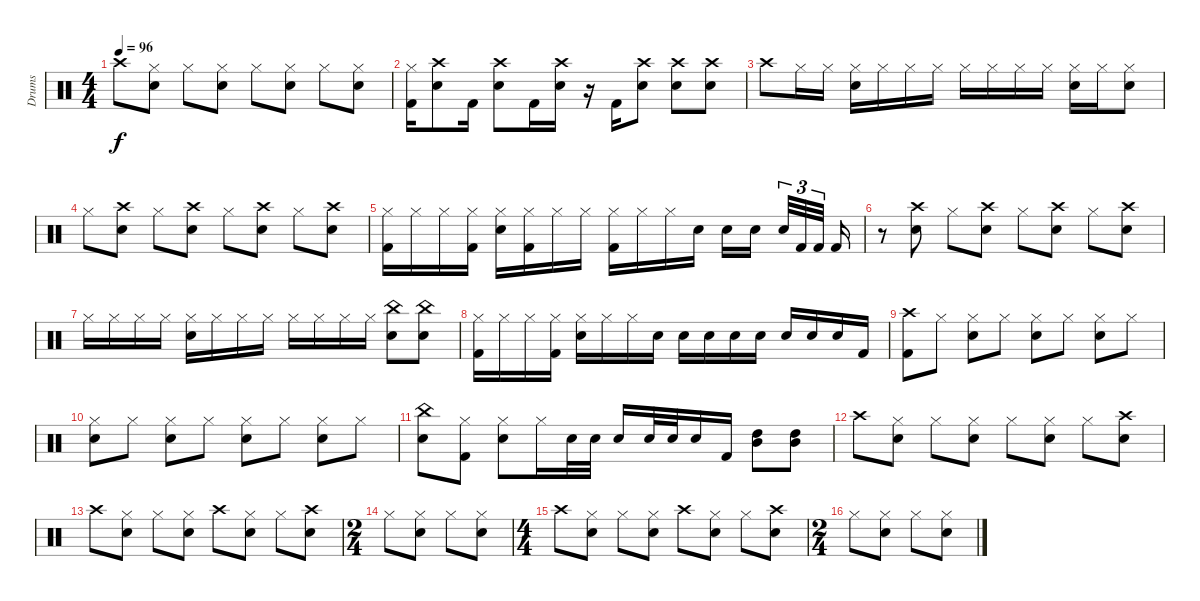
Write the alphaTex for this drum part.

\track ("Drums" "Drums") {instrument percussion}
\staff {score}
\articulation defaults
\ts (4 4)
\tempo 96
\clef neutral
\ks c "Crash high (hit)".8{dy f}
("Hi-Hat (closed)" "Snare (hit) 2").8 "Hi-Hat (closed)".8 ("Hi-Hat (closed)" "Snare (hit) 2").8 "Hi-Hat (closed)".8 ("Hi-Hat (closed)" "Snare (hit) 2").8 "Hi-Hat (closed)".8 ("Hi-Hat (closed)" "Snare (hit) 2").8 |
("Hi-Hat (closed)" "Kick (hit) 2").16 ("Crash high (hit)" "Snare (hit) 2").8 "Kick (hit) 2".16 ("Crash high (hit)" "Snare (hit) 2").8 "Kick (hit) 2".16 ("Crash high (hit)" "Snare (hit) 2").16 r.16 "Kick (hit) 2".16 ("Crash high (hit)" "Snare (hit) 2").8 ("Crash high (hit)" "Snare (hit) 2").8 ("Crash high (hit)" "Snare (hit) 2").8 |
"Crash high (hit)".8 "Hi-Hat (closed)".16 "Hi-Hat (closed)".16 ("Hi-Hat (closed)" "Snare (hit) 2").16 "Hi-Hat (closed)".16 "Hi-Hat (closed)".16 "Hi-Hat (closed)".16 "Hi-Hat (closed)".16 "Hi-Hat (closed)".16 "Hi-Hat (closed)".16 "Hi-Hat (closed)".16 ("Hi-Hat (closed)" "Snare (hit) 2").16 "Hi-Hat (closed)".16 ("Hi-Hat (closed)" "Snare (hit) 2").8 |
"Hi-Hat (closed)".8 ("Crash high (hit)" "Snare (hit) 2").8 "Hi-Hat (closed)".8 ("Crash high (hit)" "Snare (hit) 2").8 "Hi-Hat (closed)".8 ("Crash high (hit)" "Snare (hit) 2").8 "Hi-Hat (closed)".8 ("Crash high (hit)" "Snare (hit) 2").8 |
("Hi-Hat (closed)" "Kick (hit) 2").16 "Hi-Hat (closed)".16 "Hi-Hat (closed)".16 ("Hi-Hat (closed)" "Kick (hit) 2").16 ("Hi-Hat (closed)" "Snare (hit) 2").16 ("Hi-Hat (closed)" "Kick (hit) 2").16 "Hi-Hat (closed)".16 "Hi-Hat (closed)".16 ("Hi-Hat (closed)" "Kick (hit) 2").16 "Hi-Hat (closed)".16 "Hi-Hat (closed)".16 "Snare (hit) 2".16 "Snare (hit) 2".16 "Snare (hit) 2".16{beam splitsecondary} "Snare (hit) 2".32{tu (3 2)} "Kick (hit) 2".32{tu (3 2)} "Kick (hit) 2".32{tu (3 2) beam splitsecondary} "Kick (hit) 2".16 |
r.8 ("Crash high (hit)" "Snare (hit) 2").8 "Hi-Hat (closed)".8 ("Crash high (hit)" "Snare (hit) 2").8 "Hi-Hat (closed)".8 ("Crash high (hit)" "Snare (hit) 2").8 "Hi-Hat (closed)".8 ("Crash high (hit)" "Snare (hit) 2").8 |
"Hi-Hat (closed)".16 "Hi-Hat (closed)".16 "Hi-Hat (closed)".16 "Hi-Hat (closed)".16 ("Hi-Hat (closed)" "Snare (hit) 2").16 "Hi-Hat (closed)".16 "Hi-Hat (closed)".16 "Hi-Hat (closed)".16 "Hi-Hat (closed)".16 "Hi-Hat (closed)".16 "Hi-Hat (closed)".16 "Hi-Hat (closed)".16 ("China (hit)" "Snare (hit) 2").8 ("China (hit)" "Snare (hit) 2").8 |
("Hi-Hat (closed)" "Kick (hit) 2").16 "Hi-Hat (closed)".16 "Hi-Hat (closed)".16 ("Hi-Hat (closed)" "Kick (hit) 2").16 ("Hi-Hat (closed)" "Snare (hit) 2").16 "Hi-Hat (closed)".16 "Hi-Hat (closed)".16 "Snare (hit) 2".16 "Snare (hit) 2".16 "Snare (hit) 2".16 "Snare (hit) 2".16 "Snare (hit) 2".16 "Snare (hit) 2".16 "Snare (hit) 2".16 "Snare (hit) 2".16 "Kick (hit) 2".16 |
("Crash high (hit)" "Kick (hit) 2").8 "Hi-Hat (closed)".8 ("Hi-Hat (closed)" "Snare (hit) 2").8 "Hi-Hat (closed)".8 ("Hi-Hat (closed)" "Snare (hit) 2").8 "Hi-Hat (closed)".8 ("Hi-Hat (closed)" "Snare (hit) 2").8 "Hi-Hat (closed)".8 |
("Hi-Hat (closed)" "Snare (hit) 2").8 "Hi-Hat (closed)".8 ("Hi-Hat (closed)" "Snare (hit) 2").8 "Hi-Hat (closed)".8 ("Hi-Hat (closed)" "Snare (hit) 2").8 "Hi-Hat (closed)".8 ("Hi-Hat (closed)" "Snare (hit) 2").8 "Hi-Hat (closed)".8 |
("China (hit)" "Snare (hit) 2").8 ("Hi-Hat (closed)" "Kick (hit) 2").8 ("Hi-Hat (closed)" "Snare (hit) 2").8 "Hi-Hat (closed)".16 "Snare (hit) 2".32 "Snare (hit) 2".32 "Snare (hit) 2".16 "Snare (hit) 2".32 "Snare (hit) 2".32 "Snare (hit) 2".16 "Kick (hit) 2".16 ("Mid Tom (hit)" "High Tom (hit)").8 ("Mid Tom (hit)" "High Tom (hit)").8 |
"Crash high (hit)".8 ("Hi-Hat (closed)" "Snare (hit) 2").8 "Hi-Hat (closed)".8 ("Hi-Hat (closed)" "Snare (hit) 2").8 "Hi-Hat (closed)".8 ("Hi-Hat (closed)" "Snare (hit) 2").8 "Hi-Hat (closed)".8 ("Crash high (hit)" "Snare (hit) 2").8 |
"Crash high (hit)".8 ("Hi-Hat (closed)" "Snare (hit) 2").8 "Hi-Hat (closed)".8 ("Hi-Hat (closed)" "Snare (hit) 2").8 "Crash high (hit)".8 ("Hi-Hat (closed)" "Snare (hit) 2").8 "Hi-Hat (closed)".8 ("Crash high (hit)" "Snare (hit) 2").8 |
\ts (2 4)
"Hi-Hat (closed)".8 ("Hi-Hat (closed)" "Snare (hit) 2").8 "Hi-Hat (closed)".8 ("Hi-Hat (closed)" "Snare (hit) 2").8 |
\ts (4 4)
"Crash high (hit)".8 ("Hi-Hat (closed)" "Snare (hit) 2").8 "Hi-Hat (closed)".8 ("Hi-Hat (closed)" "Snare (hit) 2").8 "Crash high (hit)".8 ("Hi-Hat (closed)" "Snare (hit) 2").8 "Hi-Hat (closed)".8 ("Crash high (hit)" "Snare (hit) 2").8 |
\ts (2 4)
"Hi-Hat (closed)".8 ("Hi-Hat (closed)" "Snare (hit) 2").8 "Hi-Hat (closed)".8 ("Hi-Hat (closed)" "Snare (hit) 2").8
